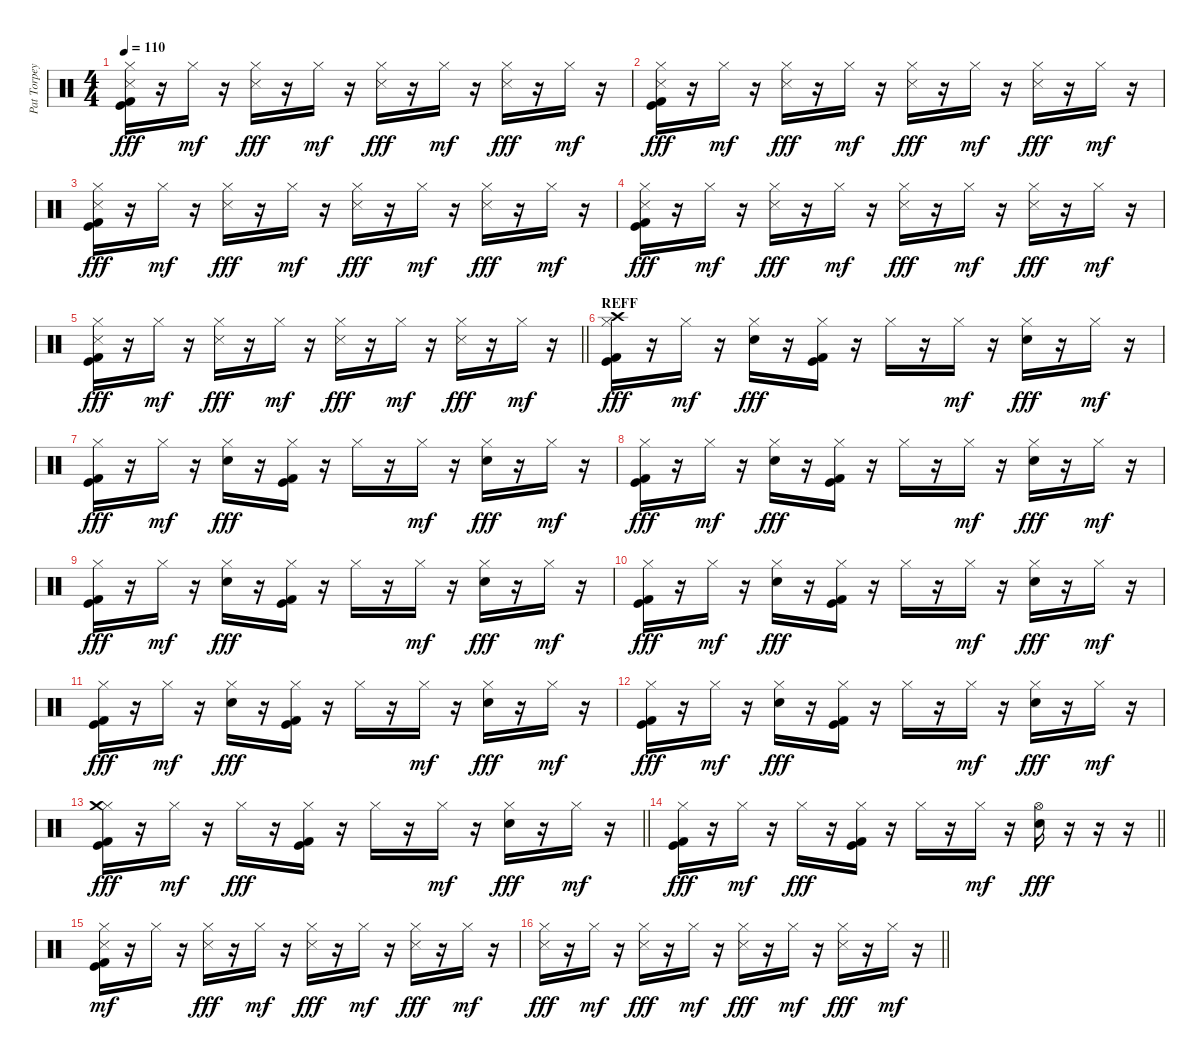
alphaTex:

\track ("Pat Torpey" "Pat Torpey") {instrument percussion}
\staff {score}
\articulation defaults
\ts (4 4)
\tempo 110
\clef neutral
\ks c
("Snare (side stick) 3" "Hi-Hat (closed)" "Kick (hit)" "Kick (hit) 2").16{dy fff} r.16 "Hi-Hat (closed)".16{dy mf} r.16 ("Snare (side stick) 3" "Hi-Hat (closed)").16{dy fff} r.16 "Hi-Hat (closed)".16{dy mf} r.16 ("Snare (side stick) 3" "Hi-Hat (closed)").16{dy fff} r.16 "Hi-Hat (closed)".16{dy mf} r.16 ("Snare (side stick) 3" "Hi-Hat (closed)").16{dy fff} r.16 "Hi-Hat (closed)".16{dy mf} r.16 |
("Snare (side stick) 3" "Hi-Hat (closed)" "Kick (hit)" "Kick (hit) 2").16{dy fff} r.16 "Hi-Hat (closed)".16{dy mf} r.16 ("Snare (side stick) 3" "Hi-Hat (closed)").16{dy fff} r.16 "Hi-Hat (closed)".16{dy mf} r.16 ("Snare (side stick) 3" "Hi-Hat (closed)").16{dy fff} r.16 "Hi-Hat (closed)".16{dy mf} r.16 ("Snare (side stick) 3" "Hi-Hat (closed)").16{dy fff} r.16 "Hi-Hat (closed)".16{dy mf} r.16 |
("Snare (side stick) 3" "Hi-Hat (closed)" "Kick (hit)" "Kick (hit) 2").16{dy fff} r.16 "Hi-Hat (closed)".16{dy mf} r.16 ("Snare (side stick) 3" "Hi-Hat (closed)").16{dy fff} r.16 "Hi-Hat (closed)".16{dy mf} r.16 ("Snare (side stick) 3" "Hi-Hat (closed)").16{dy fff} r.16 "Hi-Hat (closed)".16{dy mf} r.16 ("Snare (side stick) 3" "Hi-Hat (closed)").16{dy fff} r.16 "Hi-Hat (closed)".16{dy mf} r.16 |
("Snare (side stick) 3" "Hi-Hat (closed)" "Kick (hit)" "Kick (hit) 2").16{dy fff} r.16 "Hi-Hat (closed)".16{dy mf} r.16 ("Snare (side stick) 3" "Hi-Hat (closed)").16{dy fff} r.16 "Hi-Hat (closed)".16{dy mf} r.16 ("Snare (side stick) 3" "Hi-Hat (closed)").16{dy fff} r.16 "Hi-Hat (closed)".16{dy mf} r.16 ("Snare (side stick) 3" "Hi-Hat (closed)").16{dy fff} r.16 "Hi-Hat (closed)".16{dy mf} r.16 |
\barLineRight lightlight
("Snare (side stick) 3" "Hi-Hat (closed)" "Kick (hit)" "Kick (hit) 2").16{dy fff} r.16 "Hi-Hat (closed)".16{dy mf} r.16 ("Snare (side stick) 3" "Hi-Hat (closed)").16{dy fff} r.16 "Hi-Hat (closed)".16{dy mf} r.16 ("Snare (side stick) 3" "Hi-Hat (closed)").16{dy fff} r.16 "Hi-Hat (closed)".16{dy mf} r.16 ("Snare (side stick) 3" "Hi-Hat (closed)").16{dy fff} r.16 "Hi-Hat (closed)".16{dy mf} r.16 |
\section ("" "REFF")
("Crash high (hit)" "Hi-Hat (closed)" "Kick (hit)" "Kick (hit) 2").16{dy fff} r.16 "Hi-Hat (closed)".16{dy mf} r.16 ("Snare (hit) 2" "Hi-Hat (closed)").16{dy fff} r.16 ("Hi-Hat (closed)" "Kick (hit)" "Kick (hit) 2").16 r.16 "Hi-Hat (closed)".16 r.16 "Hi-Hat (closed)".16{dy mf} r.16 ("Snare (hit) 2" "Hi-Hat (closed)").16{dy fff} r.16 "Hi-Hat (closed)".16{dy mf} r.16 |
("Hi-Hat (closed)" "Kick (hit)" "Kick (hit) 2").16{dy fff} r.16 "Hi-Hat (closed)".16{dy mf} r.16 ("Snare (hit) 2" "Hi-Hat (closed)").16{dy fff} r.16 ("Hi-Hat (closed)" "Kick (hit)" "Kick (hit) 2").16 r.16 "Hi-Hat (closed)".16 r.16 "Hi-Hat (closed)".16{dy mf} r.16 ("Snare (hit) 2" "Hi-Hat (closed)").16{dy fff} r.16 "Hi-Hat (closed)".16{dy mf} r.16 |
("Hi-Hat (closed)" "Kick (hit)" "Kick (hit) 2").16{dy fff} r.16 "Hi-Hat (closed)".16{dy mf} r.16 ("Snare (hit) 2" "Hi-Hat (closed)").16{dy fff} r.16 ("Hi-Hat (closed)" "Kick (hit)" "Kick (hit) 2").16 r.16 "Hi-Hat (closed)".16 r.16 "Hi-Hat (closed)".16{dy mf} r.16 ("Snare (hit) 2" "Hi-Hat (closed)").16{dy fff} r.16 "Hi-Hat (closed)".16{dy mf} r.16 |
("Hi-Hat (closed)" "Kick (hit)" "Kick (hit) 2").16{dy fff} r.16 "Hi-Hat (closed)".16{dy mf} r.16 ("Snare (hit) 2" "Hi-Hat (closed)").16{dy fff} r.16 ("Hi-Hat (closed)" "Kick (hit)" "Kick (hit) 2").16 r.16 "Hi-Hat (closed)".16 r.16 "Hi-Hat (closed)".16{dy mf} r.16 ("Snare (hit) 2" "Hi-Hat (closed)").16{dy fff} r.16 "Hi-Hat (closed)".16{dy mf} r.16 |
("Hi-Hat (closed)" "Kick (hit)" "Kick (hit) 2").16{dy fff} r.16 "Hi-Hat (closed)".16{dy mf} r.16 ("Snare (hit) 2" "Hi-Hat (closed)").16{dy fff} r.16 ("Hi-Hat (closed)" "Kick (hit)" "Kick (hit) 2").16 r.16 "Hi-Hat (closed)".16 r.16 "Hi-Hat (closed)".16{dy mf} r.16 ("Snare (hit) 2" "Hi-Hat (closed)").16{dy fff} r.16 "Hi-Hat (closed)".16{dy mf} r.16 |
("Hi-Hat (closed)" "Kick (hit)" "Kick (hit) 2").16{dy fff} r.16 "Hi-Hat (closed)".16{dy mf} r.16 ("Snare (hit) 2" "Hi-Hat (closed)").16{dy fff} r.16 ("Hi-Hat (closed)" "Kick (hit)" "Kick (hit) 2").16 r.16 "Hi-Hat (closed)".16 r.16 "Hi-Hat (closed)".16{dy mf} r.16 ("Snare (hit) 2" "Hi-Hat (closed)").16{dy fff} r.16 "Hi-Hat (closed)".16{dy mf} r.16 |
("Hi-Hat (closed)" "Kick (hit)" "Kick (hit) 2").16{dy fff} r.16 "Hi-Hat (closed)".16{dy mf} r.16 ("Snare (hit) 2" "Hi-Hat (closed)").16{dy fff} r.16 ("Hi-Hat (closed)" "Kick (hit)" "Kick (hit) 2").16 r.16 "Hi-Hat (closed)".16 r.16 "Hi-Hat (closed)".16{dy mf} r.16 ("Snare (hit) 2" "Hi-Hat (closed)").16{dy fff} r.16 "Hi-Hat (closed)".16{dy mf} r.16 |
\barLineRight lightlight
("Hi-Hat (closed)" "Kick (hit)" "Kick (hit) 2" "Crash medium (hit)").16{dy fff} r.16 "Hi-Hat (closed)".16{dy mf} r.16 "Hi-Hat (closed)".16{dy fff} r.16 ("Hi-Hat (closed)" "Kick (hit)" "Kick (hit) 2").16 r.16 "Hi-Hat (closed)".16 r.16 "Hi-Hat (closed)".16{dy mf} r.16 ("Snare (hit) 2" "Hi-Hat (closed)").16{dy fff} r.16 "Hi-Hat (closed)".16{dy mf} r.16 |
\barLineRight lightlight
("Hi-Hat (closed)" "Kick (hit)" "Kick (hit) 2").16{dy fff} r.16 "Hi-Hat (closed)".16{dy mf} r.16 "Hi-Hat (closed)".16{dy fff} r.16 ("Hi-Hat (closed)" "Kick (hit)" "Kick (hit) 2").16 r.16 "Hi-Hat (closed)".16 r.16 "Hi-Hat (closed)".16{dy mf} r.16 ("Snare (hit) 2" "Hi-Hat (open)").16{dy fff} r.16 r.16 r.16 |
("Snare (side stick) 3" "Hi-Hat (closed)" "Kick (hit)" "Kick (hit) 2").16{dy mf} r.16 "Hi-Hat (closed)".16 r.16 ("Snare (side stick) 3" "Hi-Hat (closed)").16{dy fff} r.16 "Hi-Hat (closed)".16{dy mf} r.16 ("Snare (side stick) 3" "Hi-Hat (closed)").16{dy fff} r.16 "Hi-Hat (closed)".16{dy mf} r.16 ("Snare (side stick) 3" "Hi-Hat (closed)").16{dy fff} r.16 "Hi-Hat (closed)".16{dy mf} r.16 |
\barLineRight lightlight
("Snare (side stick) 3" "Hi-Hat (closed)").16{dy fff} r.16 "Hi-Hat (closed)".16{dy mf} r.16 ("Snare (side stick) 3" "Hi-Hat (closed)").16{dy fff} r.16 "Hi-Hat (closed)".16{dy mf} r.16 ("Snare (side stick) 3" "Hi-Hat (closed)").16{dy fff} r.16 "Hi-Hat (closed)".16{dy mf} r.16 ("Snare (side stick) 3" "Hi-Hat (closed)").16{dy fff} r.16 "Hi-Hat (closed)".16{dy mf} r.16
